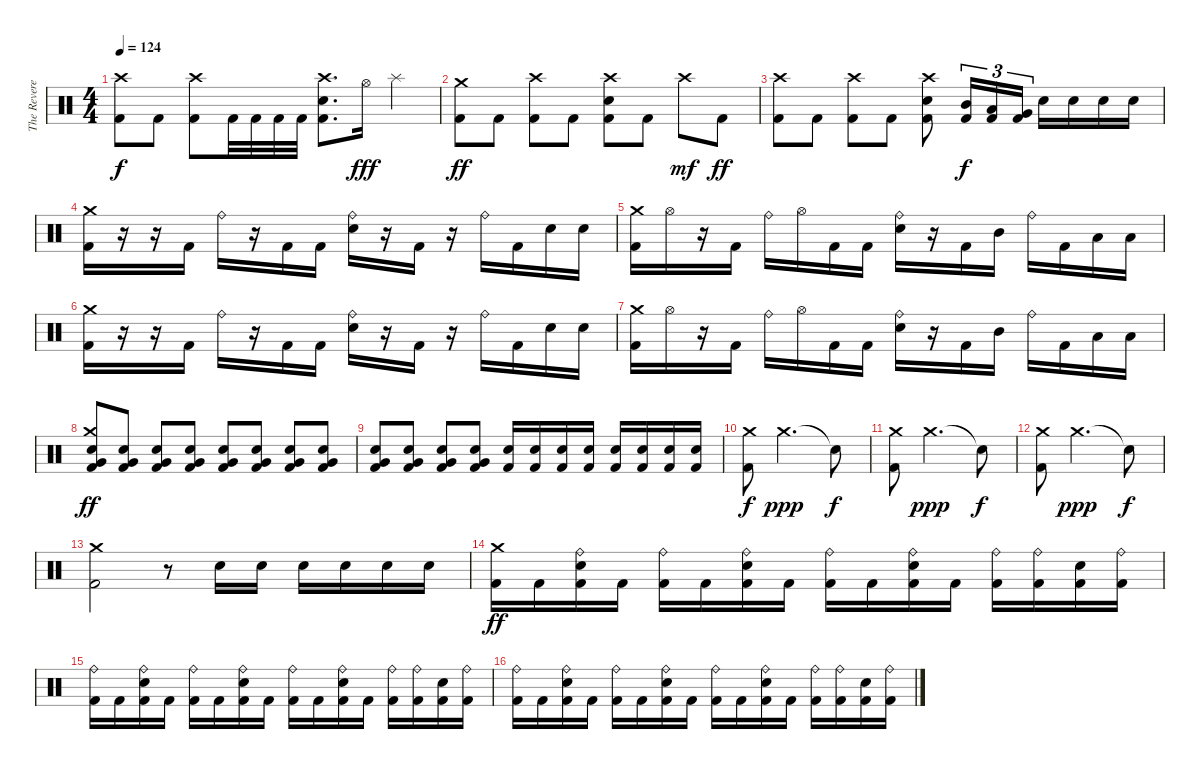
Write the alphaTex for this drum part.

\track ("The Reverend" "The Revere") {instrument percussion}
\staff {score}
\articulation defaults
\ts (4 4)
\tempo 124
\clef neutral
\ks c
("Crash high (hit)" "Kick (hit) 2").8{dy f} "Kick (hit) 2".8 ("Crash high (hit)" "Kick (hit) 2").8 "Kick (hit) 2".32 "Kick (hit) 2".32 "Kick (hit) 2".32 "Kick (hit) 2".32 ("Crash high (hit)" "Electric Snare (hit)" "Kick (hit) 2").8{d} "Hi-Hat (open)".16{dy fff} "Splash (hit)".4 |
("Crash medium (hit)" "Kick (hit) 2").8{dy ff} "Kick (hit) 2".8 ("Crash high (hit)" "Kick (hit) 2").8 "Kick (hit) 2".8 ("Crash high (hit)" "Electric Snare (hit)" "Kick (hit) 2").8 "Kick (hit) 2".8 "Crash high (hit)".8{dy mf} "Kick (hit) 2".8{dy ff} |
("Crash high (hit)" "Kick (hit) 2").8 "Kick (hit) 2".8 ("Crash high (hit)" "Kick (hit) 2").8 "Kick (hit) 2".8 ("Crash high (hit)" "Electric Snare (hit)" "Kick (hit) 2").8 ("Mid Tom (hit)" "Kick (hit) 2").16{tu (3 2) dy f} ("Low Tom (hit)" "Kick (hit) 2").16{tu (3 2)} ("Very Low Tom (hit)" "Kick (hit) 2").16{tu (3 2)} "Electric Snare (hit)".16 "Electric Snare (hit)".16 "Electric Snare (hit)".16 "Electric Snare (hit)".16 |
("Crash medium (hit)" "Kick (hit) 2").16 r.16 r.16 "Kick (hit) 2".16 "Ride (bell)".16 r.16 "Kick (hit) 2".16 "Kick (hit) 2".16 ("Ride (bell)" "Electric Snare (hit)").16 r.16 "Kick (hit) 2".16 r.16 "Ride (bell)".16 "Kick (hit) 2".16 "Electric Snare (hit)".16 "Electric Snare (hit)".16 |
("Crash medium (hit)" "Kick (hit) 2").16 "Hi-Hat (open)".16 r.16 "Kick (hit) 2".16 "Ride (bell)".16 "Hi-Hat (open)".16 "Kick (hit) 2".16 "Kick (hit) 2".16 ("Ride (bell)" "Electric Snare (hit)").16 r.16 "Kick (hit) 2".16 "Mid Tom (hit)".16 "Ride (bell)".16 "Kick (hit) 2".16 "Low Tom (hit)".16 "Low Tom (hit)".16 |
("Crash medium (hit)" "Kick (hit) 2").16 r.16 r.16 "Kick (hit) 2".16 "Ride (bell)".16 r.16 "Kick (hit) 2".16 "Kick (hit) 2".16 ("Ride (bell)" "Electric Snare (hit)").16 r.16 "Kick (hit) 2".16 r.16 "Ride (bell)".16 "Kick (hit) 2".16 "Electric Snare (hit)".16 "Electric Snare (hit)".16 |
("Crash medium (hit)" "Kick (hit) 2").16 "Hi-Hat (open)".16 r.16 "Kick (hit) 2".16 "Ride (bell)".16 "Hi-Hat (open)".16 "Kick (hit) 2".16 "Kick (hit) 2".16 ("Ride (bell)" "Electric Snare (hit)").16 r.16 "Kick (hit) 2".16 "Mid Tom (hit)".16 "Ride (bell)".16 "Kick (hit) 2".16 "Low Tom (hit)".16 "Low Tom (hit)".16 |
("Crash medium (hit)" "Electric Snare (hit)" "Very Low Tom (hit)" "Kick (hit) 2").8{dy ff} ("Electric Snare (hit)" "Very Low Tom (hit)" "Kick (hit) 2").8 ("Electric Snare (hit)" "Very Low Tom (hit)" "Kick (hit) 2").8 ("Electric Snare (hit)" "Very Low Tom (hit)" "Kick (hit) 2").8 ("Electric Snare (hit)" "Very Low Tom (hit)" "Kick (hit) 2").8 ("Electric Snare (hit)" "Very Low Tom (hit)" "Kick (hit) 2").8 ("Electric Snare (hit)" "Very Low Tom (hit)" "Kick (hit) 2").8 ("Electric Snare (hit)" "Very Low Tom (hit)" "Kick (hit) 2").8 |
("Electric Snare (hit)" "Very Low Tom (hit)" "Kick (hit) 2").8 ("Electric Snare (hit)" "Very Low Tom (hit)" "Kick (hit) 2").8 ("Electric Snare (hit)" "Very Low Tom (hit)" "Kick (hit) 2").8 ("Electric Snare (hit)" "Very Low Tom (hit)" "Kick (hit) 2").8 ("Electric Snare (hit)" "Kick (hit) 2").16 ("Electric Snare (hit)" "Kick (hit) 2").16 ("Electric Snare (hit)" "Kick (hit) 2").16 ("Electric Snare (hit)" "Kick (hit) 2").16 ("Electric Snare (hit)" "Kick (hit) 2").16 ("Electric Snare (hit)" "Kick (hit) 2").16 ("Electric Snare (hit)" "Kick (hit) 2").16 ("Electric Snare (hit)" "Kick (hit) 2").16 |
("Crash medium (hit)" "Kick (hit) 2").8{dy f} "Crash medium (hit)".2{d dy ppp} "Snare (hit)"{t}.8{dy f} |
("Crash medium (hit)" "Kick (hit) 2").8 "Crash medium (hit)".2{d dy ppp} "Snare (hit)"{t}.8{dy f} |
("Crash medium (hit)" "Kick (hit) 2").8 "Crash medium (hit)".2{d dy ppp} "Snare (hit)"{t}.8{dy f} |
("Crash medium (hit)" "Kick (hit) 2").2 r.8 "Electric Snare (hit)".16 "Electric Snare (hit)".16 "Electric Snare (hit)".16 "Electric Snare (hit)".16 "Electric Snare (hit)".16 "Electric Snare (hit)".16 |
("Crash medium (hit)" "Kick (hit) 2").16{dy ff} "Kick (hit) 2".16 ("Ride (bell)" "Electric Snare (hit)" "Kick (hit) 2").16 "Kick (hit) 2".16 ("Ride (bell)" "Kick (hit) 2").16 "Kick (hit) 2".16 ("Ride (bell)" "Electric Snare (hit)" "Kick (hit) 2").16 "Kick (hit) 2".16 ("Ride (bell)" "Kick (hit) 2").16 "Kick (hit) 2".16 ("Ride (bell)" "Electric Snare (hit)" "Kick (hit) 2").16 "Kick (hit) 2".16 ("Ride (bell)" "Kick (hit) 2").16 ("Ride (bell)" "Kick (hit) 2").16 ("Electric Snare (hit)" "Kick (hit) 2").16 ("Ride (bell)" "Kick (hit) 2").16 |
("Ride (bell)" "Kick (hit) 2").16 "Kick (hit) 2".16 ("Ride (bell)" "Electric Snare (hit)" "Kick (hit) 2").16 "Kick (hit) 2".16 ("Ride (bell)" "Kick (hit) 2").16 "Kick (hit) 2".16 ("Ride (bell)" "Electric Snare (hit)" "Kick (hit) 2").16 "Kick (hit) 2".16 ("Ride (bell)" "Kick (hit) 2").16 "Kick (hit) 2".16 ("Ride (bell)" "Electric Snare (hit)" "Kick (hit) 2").16 "Kick (hit) 2".16 ("Ride (bell)" "Kick (hit) 2").16 ("Ride (bell)" "Kick (hit) 2").16 ("Electric Snare (hit)" "Kick (hit) 2").16 ("Ride (bell)" "Kick (hit) 2").16 |
("Ride (bell)" "Kick (hit) 2").16 "Kick (hit) 2".16 ("Ride (bell)" "Electric Snare (hit)" "Kick (hit) 2").16 "Kick (hit) 2".16 ("Ride (bell)" "Kick (hit) 2").16 "Kick (hit) 2".16 ("Ride (bell)" "Electric Snare (hit)" "Kick (hit) 2").16 "Kick (hit) 2".16 ("Ride (bell)" "Kick (hit) 2").16 "Kick (hit) 2".16 ("Ride (bell)" "Electric Snare (hit)" "Kick (hit) 2").16 "Kick (hit) 2".16 ("Ride (bell)" "Kick (hit) 2").16 ("Ride (bell)" "Kick (hit) 2").16 ("Electric Snare (hit)" "Kick (hit) 2").16 ("Ride (bell)" "Kick (hit) 2").16
